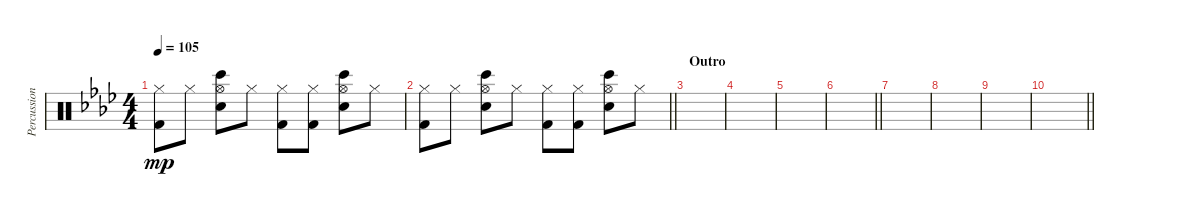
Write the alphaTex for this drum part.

\track ("Percussion" "Percussion") {instrument percussion}
\staff {score}
\articulation defaults
\ts (4 4)
\tempo 105
\clef neutral
\ks fminor
("Hi-Hat (closed)" "Kick (hit) 2").8{dy mp} "Hi-Hat (closed)".8 ("Hi-Hat (open)" "Snare (hit) 2" "Bongo High (hit)").8 "Hi-Hat (closed)".8 ("Hi-Hat (closed)" "Kick (hit) 2").8 ("Hi-Hat (closed)" "Kick (hit) 2").8 ("Hi-Hat (open)" "Snare (hit) 2" "Bongo High (hit)").8 "Hi-Hat (closed)".8 |
\barLineRight lightlight
("Hi-Hat (closed)" "Kick (hit) 2").8 "Hi-Hat (closed)".8 ("Hi-Hat (open)" "Snare (hit) 2" "Bongo High (hit)").8 "Hi-Hat (closed)".8 ("Hi-Hat (closed)" "Kick (hit) 2").8 ("Hi-Hat (closed)" "Kick (hit) 2").8 ("Hi-Hat (open)" "Snare (hit) 2" "Bongo High (hit)").8 "Hi-Hat (closed)".8 |
\section ("" "Outro")
|
|
|
\barLineRight lightlight
|
\section ("" "")
|
|
|
\barLineRight lightlight
